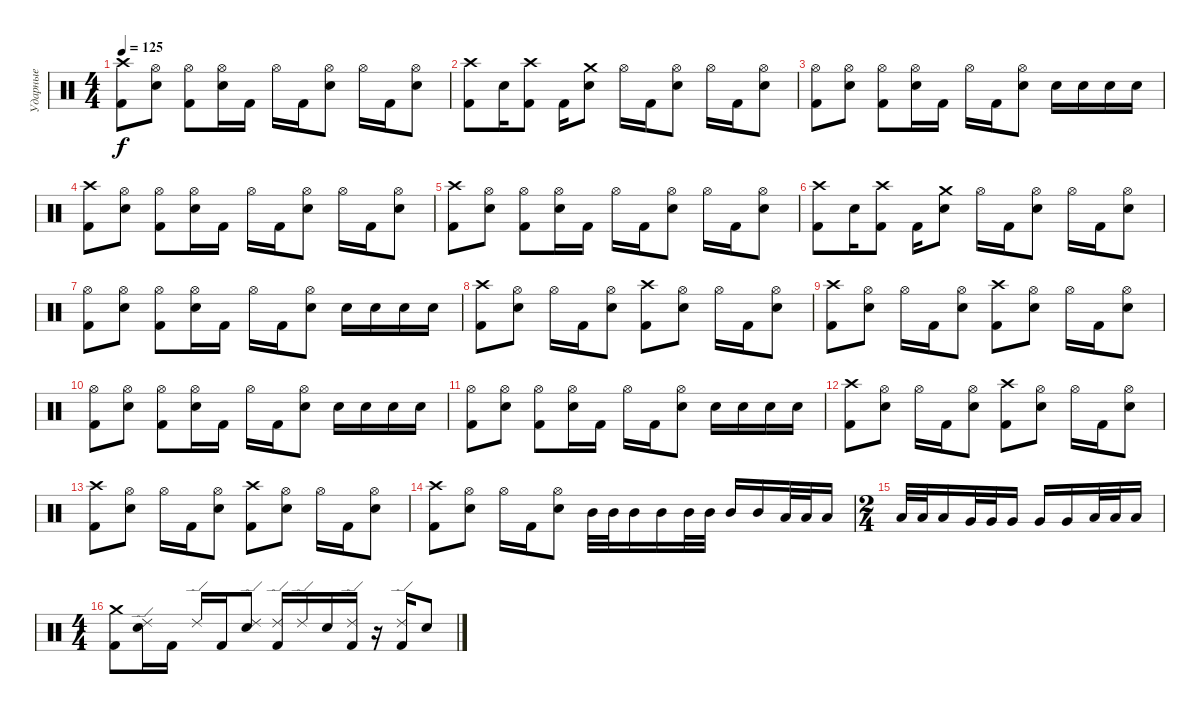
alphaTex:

\track ("Ударные" "Ударные") {instrument percussion}
\staff {score}
\articulation defaults
\ts (4 4)
\tempo 125
\clef neutral
\ks c
("Crash high (hit)" "Kick (hit) 2").8{dy f} ("Hi-Hat (open)" "Snare (hit) 2").8 ("Hi-Hat (open)" "Kick (hit) 2").8 ("Hi-Hat (open)" "Snare (hit) 2").16 "Kick (hit) 2".16 "Hi-Hat (open)".16 "Kick (hit) 2".16 ("Hi-Hat (open)" "Snare (hit) 2").8 "Hi-Hat (open)".16 "Kick (hit) 2".16 ("Hi-Hat (open)" "Snare (hit) 2").8 |
("Crash high (hit)" "Kick (hit) 2").8 "Snare (hit) 2".16 ("Crash high (hit)" "Kick (hit) 2").8 "Kick (hit) 2".16 ("Crash medium (hit)" "Snare (hit) 2").8 "Hi-Hat (open)".16 "Kick (hit) 2".16 ("Hi-Hat (open)" "Snare (hit) 2").8 "Hi-Hat (open)".16 "Kick (hit) 2".16 ("Hi-Hat (open)" "Snare (hit) 2").8 |
("Hi-Hat (open)" "Kick (hit) 2").8 ("Hi-Hat (open)" "Snare (hit) 2").8 ("Hi-Hat (open)" "Kick (hit) 2").8 ("Hi-Hat (open)" "Snare (hit) 2").16 "Kick (hit) 2".16 "Hi-Hat (open)".16 "Kick (hit) 2".16 ("Hi-Hat (open)" "Snare (hit) 2").8 "Snare (hit) 2".16 "Snare (hit) 2".16 "Snare (hit) 2".16 "Snare (hit) 2".16 |
("Crash high (hit)" "Kick (hit) 2").8 ("Hi-Hat (open)" "Snare (hit) 2").8 ("Hi-Hat (open)" "Kick (hit) 2").8 ("Hi-Hat (open)" "Snare (hit) 2").16 "Kick (hit) 2".16 "Hi-Hat (open)".16 "Kick (hit) 2".16 ("Hi-Hat (open)" "Snare (hit) 2").8 "Hi-Hat (open)".16 "Kick (hit) 2".16 ("Hi-Hat (open)" "Snare (hit) 2").8 |
("Crash high (hit)" "Kick (hit) 2").8 ("Hi-Hat (open)" "Snare (hit) 2").8 ("Hi-Hat (open)" "Kick (hit) 2").8 ("Hi-Hat (open)" "Snare (hit) 2").16 "Kick (hit) 2".16 "Hi-Hat (open)".16 "Kick (hit) 2".16 ("Hi-Hat (open)" "Snare (hit) 2").8 "Hi-Hat (open)".16 "Kick (hit) 2".16 ("Hi-Hat (open)" "Snare (hit) 2").8 |
("Crash high (hit)" "Kick (hit) 2").8 "Snare (hit) 2".16 ("Crash high (hit)" "Kick (hit) 2").8 "Kick (hit) 2".16 ("Crash medium (hit)" "Snare (hit) 2").8 "Hi-Hat (open)".16 "Kick (hit) 2".16 ("Hi-Hat (open)" "Snare (hit) 2").8 "Hi-Hat (open)".16 "Kick (hit) 2".16 ("Hi-Hat (open)" "Snare (hit) 2").8 |
("Hi-Hat (open)" "Kick (hit) 2").8 ("Hi-Hat (open)" "Snare (hit) 2").8 ("Hi-Hat (open)" "Kick (hit) 2").8 ("Hi-Hat (open)" "Snare (hit) 2").16 "Kick (hit) 2".16 "Hi-Hat (open)".16 "Kick (hit) 2".16 ("Hi-Hat (open)" "Snare (hit) 2").8 "Snare (hit) 2".16 "Snare (hit) 2".16 "Snare (hit) 2".16 "Snare (hit) 2".16 |
("Crash high (hit)" "Kick (hit) 2").8 ("Hi-Hat (open)" "Snare (hit) 2").8 "Hi-Hat (open)".16 "Kick (hit) 2".16 ("Hi-Hat (open)" "Snare (hit) 2").8 ("Crash high (hit)" "Kick (hit) 2").8 ("Hi-Hat (open)" "Snare (hit) 2").8 "Hi-Hat (open)".16 "Kick (hit) 2".16 ("Hi-Hat (open)" "Snare (hit) 2").8 |
("Crash high (hit)" "Kick (hit) 2").8 ("Hi-Hat (open)" "Snare (hit) 2").8 "Hi-Hat (open)".16 "Kick (hit) 2".16 ("Hi-Hat (open)" "Snare (hit) 2").8 ("Crash high (hit)" "Kick (hit) 2").8 ("Hi-Hat (open)" "Snare (hit) 2").8 "Hi-Hat (open)".16 "Kick (hit) 2".16 ("Hi-Hat (open)" "Snare (hit) 2").8 |
("Hi-Hat (open)" "Kick (hit) 2").8 ("Hi-Hat (open)" "Snare (hit) 2").8 ("Hi-Hat (open)" "Kick (hit) 2").8 ("Hi-Hat (open)" "Snare (hit) 2").16 "Kick (hit) 2".16 "Hi-Hat (open)".16 "Kick (hit) 2".16 ("Hi-Hat (open)" "Snare (hit) 2").8 "Snare (hit) 2".16 "Snare (hit) 2".16 "Snare (hit) 2".16 "Snare (hit) 2".16 |
("Hi-Hat (open)" "Kick (hit) 2").8 ("Hi-Hat (open)" "Snare (hit) 2").8 ("Hi-Hat (open)" "Kick (hit) 2").8 ("Hi-Hat (open)" "Snare (hit) 2").16 "Kick (hit) 2".16 "Hi-Hat (open)".16 "Kick (hit) 2".16 ("Hi-Hat (open)" "Snare (hit) 2").8 "Snare (hit) 2".16 "Snare (hit) 2".16 "Snare (hit) 2".16 "Snare (hit) 2".16 |
("Crash high (hit)" "Kick (hit) 2").8 ("Hi-Hat (open)" "Snare (hit) 2").8 "Hi-Hat (open)".16 "Kick (hit) 2".16 ("Hi-Hat (open)" "Snare (hit) 2").8 ("Crash high (hit)" "Kick (hit) 2").8 ("Hi-Hat (open)" "Snare (hit) 2").8 "Hi-Hat (open)".16 "Kick (hit) 2".16 ("Hi-Hat (open)" "Snare (hit) 2").8 |
("Crash high (hit)" "Kick (hit) 2").8 ("Hi-Hat (open)" "Snare (hit) 2").8 "Hi-Hat (open)".16 "Kick (hit) 2".16 ("Hi-Hat (open)" "Snare (hit) 2").8 ("Crash high (hit)" "Kick (hit) 2").8 ("Hi-Hat (open)" "Snare (hit) 2").8 "Hi-Hat (open)".16 "Kick (hit) 2".16 ("Hi-Hat (open)" "Snare (hit) 2").8 |
("Crash high (hit)" "Kick (hit) 2").8 ("Hi-Hat (open)" "Snare (hit) 2").8 "Hi-Hat (open)".16 "Kick (hit) 2".16 ("Hi-Hat (open)" "Snare (hit) 2").8 "Mid Tom (hit)".32 "Mid Tom (hit)".32 "Mid Tom (hit)".16 "Mid Tom (hit)".16 "Mid Tom (hit)".32 "Mid Tom (hit)".32 "Mid Tom (hit)".16 "Mid Tom (hit)".16 "Low Tom (hit)".32 "Low Tom (hit)".32 "Low Tom (hit)".16 |
\ts (2 4)
"Low Tom (hit)".32 "Low Tom (hit)".32 "Low Tom (hit)".16 "Very Low Tom (hit)".32 "Very Low Tom (hit)".32 "Very Low Tom (hit)".16 "Very Low Tom (hit)".16 "Very Low Tom (hit)".16 "Low Floor Tom (hit)".32 "Low Floor Tom (hit)".32 "Low Floor Tom (hit)".16 |
\ts (4 4)
("Crash medium (hit)" "Kick (hit) 2").8 ("Ride (edge) 2" "Snare (hit) 2").16 "Kick (hit) 2".16 "Ride (edge) 2".16 "Kick (hit) 2".16 ("Ride (edge) 2" "Snare (hit) 2").8 ("Ride (edge) 2" "Kick (hit) 2").16 "Ride (edge) 2".16 "Snare (hit) 2".16 ("Ride (edge) 2" "Kick (hit) 2").16 r.16 ("Ride (edge) 2" "Kick (hit) 2").16 "Snare (hit) 2".8
